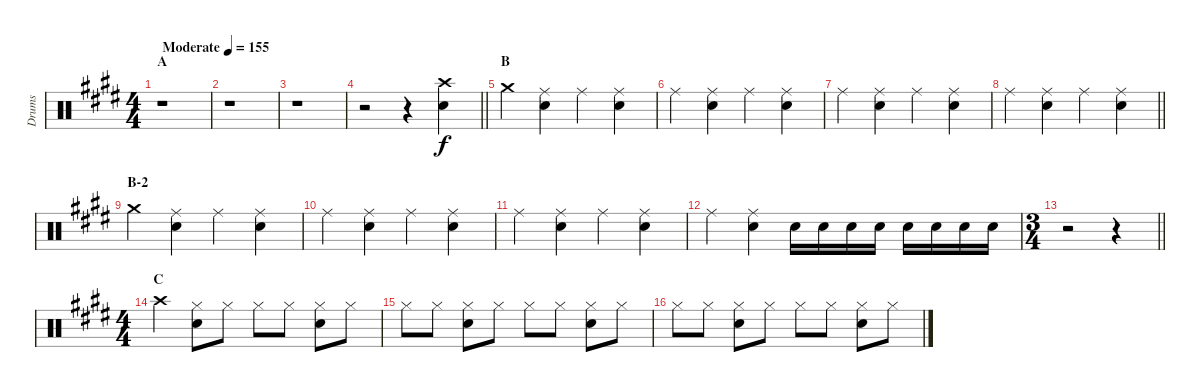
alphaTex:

\track ("Drums" "Drums") {instrument percussion}
\staff {score}
\articulation defaults
\ts (4 4)
\section ("" "A")
\tempo (155 "Moderate")
\clef neutral
\ks e
r.1{dy f} |
r.1 |
r.1 |
\barLineRight lightlight
r.2 r.4 ("Crash high (hit)" "Snare (hit) 2").4 |
\section ("" "B")
"Crash medium (hit)".4 ("Ride (middle)" "Snare (hit) 2").4 "Ride (middle)".4 ("Ride (middle)" "Snare (hit) 2").4 |
"Ride (middle)".4 ("Ride (middle)" "Snare (hit) 2").4 "Ride (middle)".4 ("Ride (middle)" "Snare (hit) 2").4 |
"Ride (middle)".4 ("Ride (middle)" "Snare (hit) 2").4 "Ride (middle)".4 ("Ride (middle)" "Snare (hit) 2").4 |
\barLineRight lightlight "Ride (middle)".4
("Ride (middle)" "Snare (hit) 2").4 "Ride (middle)".4 ("Ride (middle)" "Snare (hit) 2").4 |
\section ("" "B-2")
"Crash medium (hit)".4 ("Ride (middle)" "Snare (hit) 2").4 "Ride (middle)".4 ("Ride (middle)" "Snare (hit) 2").4 |
"Ride (middle)".4 ("Ride (middle)" "Snare (hit) 2").4 "Ride (middle)".4 ("Ride (middle)" "Snare (hit) 2").4 |
"Ride (middle)".4 ("Ride (middle)" "Snare (hit) 2").4 "Ride (middle)".4 ("Ride (middle)" "Snare (hit) 2").4 |
"Ride (middle)".4 ("Ride (middle)" "Snare (hit) 2").4 "Snare (hit) 2".16 "Snare (hit) 2".16 "Snare (hit) 2".16 "Snare (hit) 2".16 "Snare (hit) 2".16 "Snare (hit) 2".16 "Snare (hit) 2".16 "Snare (hit) 2".16 |
\ts (3 4)
\barLineRight lightlight
r.2 r.4 |
\ts (4 4)
\section ("" "C")
"Crash high (hit)".4 ("Hi-Hat (closed)" "Snare (hit) 2").8 "Hi-Hat (closed)".8 "Hi-Hat (closed)".8 "Hi-Hat (closed)".8 ("Hi-Hat (closed)" "Snare (hit) 2").8 "Hi-Hat (closed)".8 |
"Hi-Hat (closed)".8 "Hi-Hat (closed)".8 ("Hi-Hat (closed)" "Snare (hit) 2").8 "Hi-Hat (closed)".8 "Hi-Hat (closed)".8 "Hi-Hat (closed)".8 ("Hi-Hat (closed)" "Snare (hit) 2").8 "Hi-Hat (closed)".8 |
"Hi-Hat (closed)".8 "Hi-Hat (closed)".8 ("Hi-Hat (closed)" "Snare (hit) 2").8 "Hi-Hat (closed)".8 "Hi-Hat (closed)".8 "Hi-Hat (closed)".8 ("Hi-Hat (closed)" "Snare (hit) 2").8 "Hi-Hat (closed)".8
